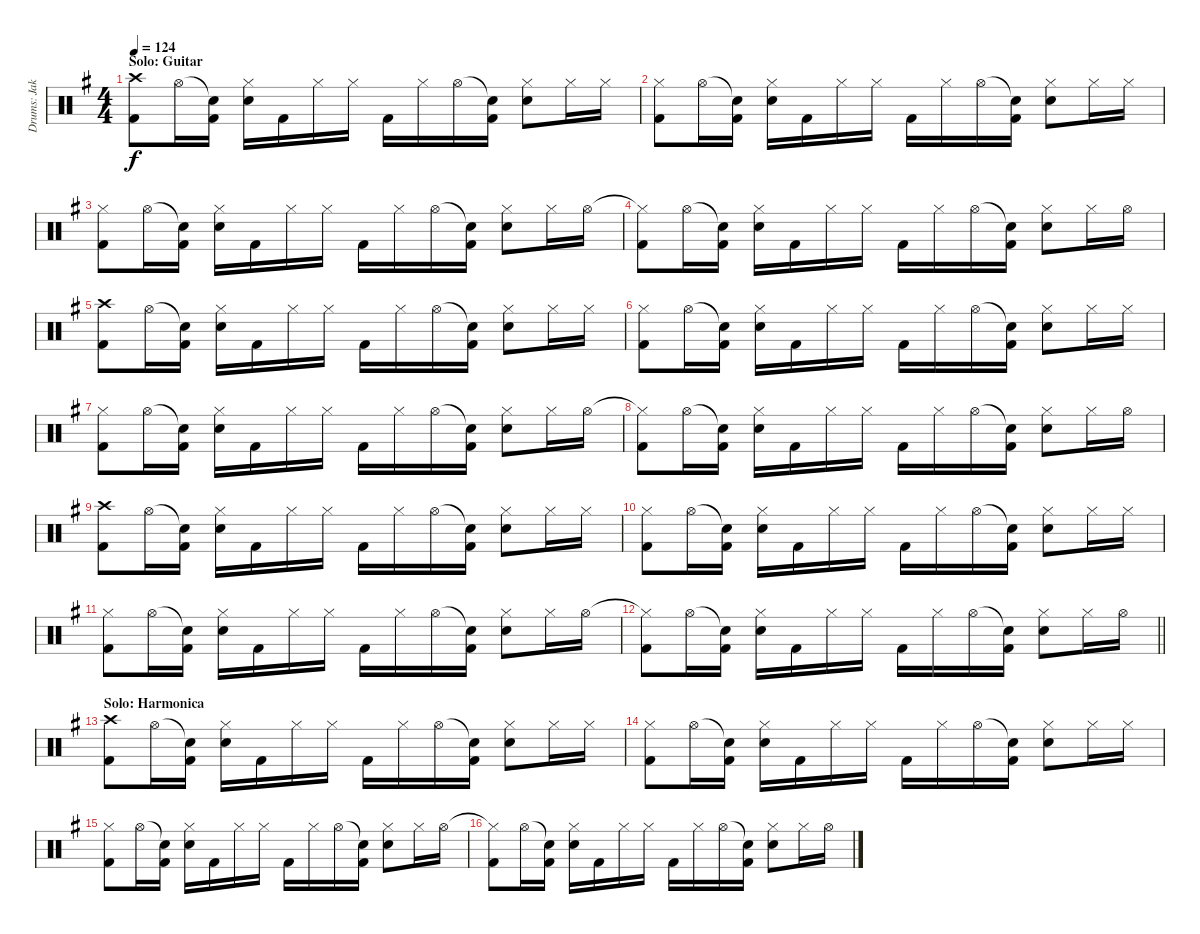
\track ("Drums: Jakson" "Drums: Jak") {instrument percussion}
\staff {score}
\articulation defaults
\ts (4 4)
\section ("" "Solo: Guitar")
\tempo 124
\clef neutral
\ks g
("Crash high (hit)" "Kick (hit) 2").8{dy f} "Hi-Hat (open)".16 ("Snare (hit)"{t} "Kick (hit) 2").16 ("Hi-Hat (closed)" "Electric Snare (hit)").16 "Kick (hit) 2".16 "Hi-Hat (closed)".16 "Hi-Hat (closed)".16 "Kick (hit) 2".16 "Hi-Hat (closed)".16 "Hi-Hat (open)".16 ("Snare (hit)"{t} "Kick (hit) 2").16 ("Hi-Hat (closed)" "Electric Snare (hit)").8 "Hi-Hat (closed)".16 "Hi-Hat (closed)".16 |
("Hi-Hat (closed)" "Kick (hit) 2").8 "Hi-Hat (open)".16 ("Snare (hit)"{t} "Kick (hit) 2").16 ("Hi-Hat (closed)" "Electric Snare (hit)").16 "Kick (hit) 2".16 "Hi-Hat (closed)".16 "Hi-Hat (closed)".16 "Kick (hit) 2".16 "Hi-Hat (closed)".16 "Hi-Hat (open)".16 ("Snare (hit)"{t} "Kick (hit) 2").16 ("Hi-Hat (closed)" "Electric Snare (hit)").8 "Hi-Hat (closed)".16 "Hi-Hat (closed)".16 |
("Hi-Hat (closed)" "Kick (hit) 2").8 "Hi-Hat (open)".16 ("Snare (hit)"{t} "Kick (hit) 2").16 ("Hi-Hat (closed)" "Electric Snare (hit)").16 "Kick (hit) 2".16 "Hi-Hat (closed)".16 "Hi-Hat (closed)".16 "Kick (hit) 2".16 "Hi-Hat (closed)".16 "Hi-Hat (open)".16 ("Snare (hit)"{t} "Kick (hit) 2").16 ("Hi-Hat (closed)" "Electric Snare (hit)").8 "Hi-Hat (closed)".16 "Hi-Hat (open)".16 |
("Hi-Hat (closed)"{t} "Kick (hit) 2").8 "Hi-Hat (open)".16 ("Snare (hit)"{t} "Kick (hit) 2").16 ("Hi-Hat (closed)" "Electric Snare (hit)").16 "Kick (hit) 2".16 "Hi-Hat (closed)".16 "Hi-Hat (closed)".16 "Kick (hit) 2".16 "Hi-Hat (closed)".16 "Hi-Hat (open)".16 ("Snare (hit)"{t} "Kick (hit) 2").16 ("Hi-Hat (closed)" "Electric Snare (hit)").8 "Hi-Hat (closed)".16 "Hi-Hat (open)".16 |
("Crash high (hit)" "Kick (hit) 2").8 "Hi-Hat (open)".16 ("Snare (hit)"{t} "Kick (hit) 2").16 ("Hi-Hat (closed)" "Electric Snare (hit)").16 "Kick (hit) 2".16 "Hi-Hat (closed)".16 "Hi-Hat (closed)".16 "Kick (hit) 2".16 "Hi-Hat (closed)".16 "Hi-Hat (open)".16 ("Snare (hit)"{t} "Kick (hit) 2").16 ("Hi-Hat (closed)" "Electric Snare (hit)").8 "Hi-Hat (closed)".16 "Hi-Hat (closed)".16 |
("Hi-Hat (closed)" "Kick (hit) 2").8 "Hi-Hat (open)".16 ("Snare (hit)"{t} "Kick (hit) 2").16 ("Hi-Hat (closed)" "Electric Snare (hit)").16 "Kick (hit) 2".16 "Hi-Hat (closed)".16 "Hi-Hat (closed)".16 "Kick (hit) 2".16 "Hi-Hat (closed)".16 "Hi-Hat (open)".16 ("Snare (hit)"{t} "Kick (hit) 2").16 ("Hi-Hat (closed)" "Electric Snare (hit)").8 "Hi-Hat (closed)".16 "Hi-Hat (closed)".16 |
("Hi-Hat (closed)" "Kick (hit) 2").8 "Hi-Hat (open)".16 ("Snare (hit)"{t} "Kick (hit) 2").16 ("Hi-Hat (closed)" "Electric Snare (hit)").16 "Kick (hit) 2".16 "Hi-Hat (closed)".16 "Hi-Hat (closed)".16 "Kick (hit) 2".16 "Hi-Hat (closed)".16 "Hi-Hat (open)".16 ("Snare (hit)"{t} "Kick (hit) 2").16 ("Hi-Hat (closed)" "Electric Snare (hit)").8 "Hi-Hat (closed)".16 "Hi-Hat (open)".16 |
("Hi-Hat (closed)"{t} "Kick (hit) 2").8 "Hi-Hat (open)".16 ("Snare (hit)"{t} "Kick (hit) 2").16 ("Hi-Hat (closed)" "Electric Snare (hit)").16 "Kick (hit) 2".16 "Hi-Hat (closed)".16 "Hi-Hat (closed)".16 "Kick (hit) 2".16 "Hi-Hat (closed)".16 "Hi-Hat (open)".16 ("Snare (hit)"{t} "Kick (hit) 2").16 ("Hi-Hat (closed)" "Electric Snare (hit)").8 "Hi-Hat (closed)".16 "Hi-Hat (open)".16 |
("Crash high (hit)" "Kick (hit) 2").8 "Hi-Hat (open)".16 ("Snare (hit)"{t} "Kick (hit) 2").16 ("Hi-Hat (closed)" "Electric Snare (hit)").16 "Kick (hit) 2".16 "Hi-Hat (closed)".16 "Hi-Hat (closed)".16 "Kick (hit) 2".16 "Hi-Hat (closed)".16 "Hi-Hat (open)".16 ("Snare (hit)"{t} "Kick (hit) 2").16 ("Hi-Hat (closed)" "Electric Snare (hit)").8 "Hi-Hat (closed)".16 "Hi-Hat (closed)".16 |
("Hi-Hat (closed)" "Kick (hit) 2").8 "Hi-Hat (open)".16 ("Snare (hit)"{t} "Kick (hit) 2").16 ("Hi-Hat (closed)" "Electric Snare (hit)").16 "Kick (hit) 2".16 "Hi-Hat (closed)".16 "Hi-Hat (closed)".16 "Kick (hit) 2".16 "Hi-Hat (closed)".16 "Hi-Hat (open)".16 ("Snare (hit)"{t} "Kick (hit) 2").16 ("Hi-Hat (closed)" "Electric Snare (hit)").8 "Hi-Hat (closed)".16 "Hi-Hat (closed)".16 |
("Hi-Hat (closed)" "Kick (hit) 2").8 "Hi-Hat (open)".16 ("Snare (hit)"{t} "Kick (hit) 2").16 ("Hi-Hat (closed)" "Electric Snare (hit)").16 "Kick (hit) 2".16 "Hi-Hat (closed)".16 "Hi-Hat (closed)".16 "Kick (hit) 2".16 "Hi-Hat (closed)".16 "Hi-Hat (open)".16 ("Snare (hit)"{t} "Kick (hit) 2").16 ("Hi-Hat (closed)" "Electric Snare (hit)").8 "Hi-Hat (closed)".16 "Hi-Hat (open)".16 |
\barLineRight lightlight
("Hi-Hat (closed)"{t} "Kick (hit) 2").8 "Hi-Hat (open)".16 ("Snare (hit)"{t} "Kick (hit) 2").16 ("Hi-Hat (closed)" "Electric Snare (hit)").16 "Kick (hit) 2".16 "Hi-Hat (closed)".16 "Hi-Hat (closed)".16 "Kick (hit) 2".16 "Hi-Hat (closed)".16 "Hi-Hat (open)".16 ("Snare (hit)"{t} "Kick (hit) 2").16 ("Hi-Hat (closed)" "Electric Snare (hit)").8 "Hi-Hat (closed)".16 "Hi-Hat (open)".16 |
\section ("" "Solo: Harmonica")
("Crash high (hit)" "Kick (hit) 2").8 "Hi-Hat (open)".16 ("Snare (hit)"{t} "Kick (hit) 2").16 ("Hi-Hat (closed)" "Electric Snare (hit)").16 "Kick (hit) 2".16 "Hi-Hat (closed)".16 "Hi-Hat (closed)".16 "Kick (hit) 2".16 "Hi-Hat (closed)".16 "Hi-Hat (open)".16 ("Snare (hit)"{t} "Kick (hit) 2").16 ("Hi-Hat (closed)" "Electric Snare (hit)").8 "Hi-Hat (closed)".16 "Hi-Hat (closed)".16 |
("Hi-Hat (closed)" "Kick (hit) 2").8 "Hi-Hat (open)".16 ("Snare (hit)"{t} "Kick (hit) 2").16 ("Hi-Hat (closed)" "Electric Snare (hit)").16 "Kick (hit) 2".16 "Hi-Hat (closed)".16 "Hi-Hat (closed)".16 "Kick (hit) 2".16 "Hi-Hat (closed)".16 "Hi-Hat (open)".16 ("Snare (hit)"{t} "Kick (hit) 2").16 ("Hi-Hat (closed)" "Electric Snare (hit)").8 "Hi-Hat (closed)".16 "Hi-Hat (closed)".16 |
("Hi-Hat (closed)" "Kick (hit) 2").8 "Hi-Hat (open)".16 ("Snare (hit)"{t} "Kick (hit) 2").16 ("Hi-Hat (closed)" "Electric Snare (hit)").16 "Kick (hit) 2".16 "Hi-Hat (closed)".16 "Hi-Hat (closed)".16 "Kick (hit) 2".16 "Hi-Hat (closed)".16 "Hi-Hat (open)".16 ("Snare (hit)"{t} "Kick (hit) 2").16 ("Hi-Hat (closed)" "Electric Snare (hit)").8 "Hi-Hat (closed)".16 "Hi-Hat (open)".16 |
("Hi-Hat (closed)"{t} "Kick (hit) 2").8 "Hi-Hat (open)".16 ("Snare (hit)"{t} "Kick (hit) 2").16 ("Hi-Hat (closed)" "Electric Snare (hit)").16 "Kick (hit) 2".16 "Hi-Hat (closed)".16 "Hi-Hat (closed)".16 "Kick (hit) 2".16 "Hi-Hat (closed)".16 "Hi-Hat (open)".16 ("Snare (hit)"{t} "Kick (hit) 2").16 ("Hi-Hat (closed)" "Electric Snare (hit)").8 "Hi-Hat (closed)".16 "Hi-Hat (open)".16
